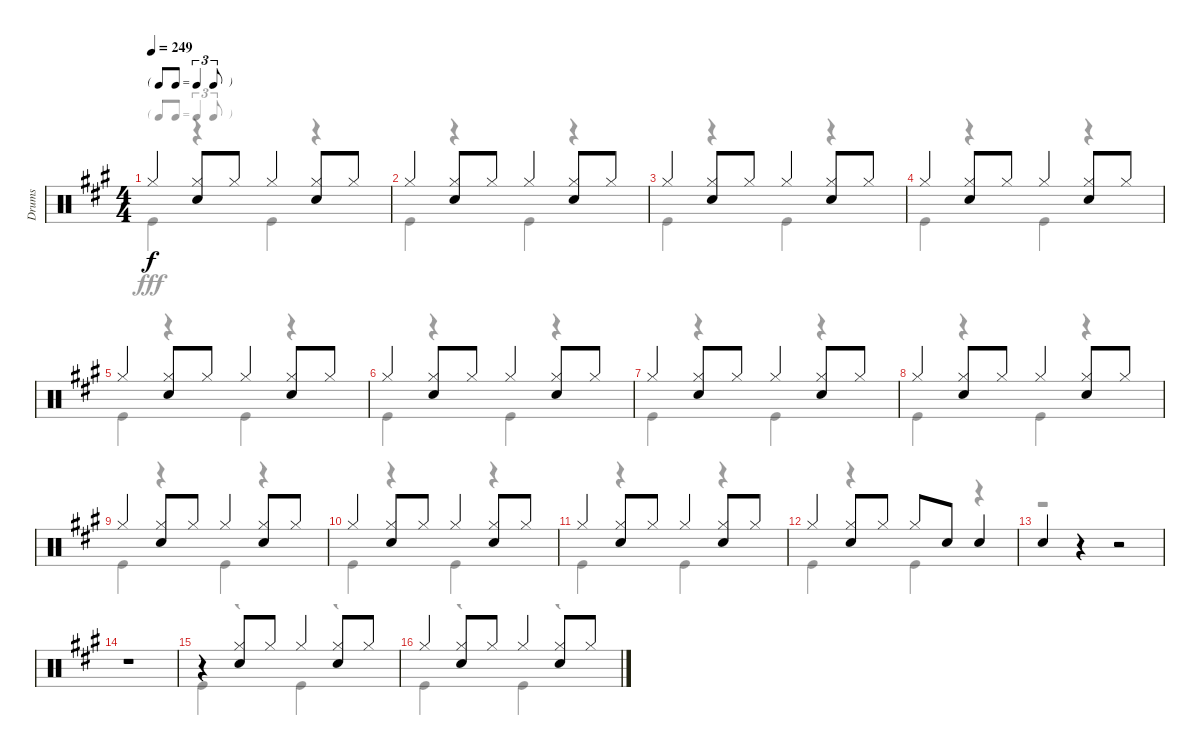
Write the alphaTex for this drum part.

\track ("Drums" "Drums") {instrument percussion}
\staff {score}
\articulation defaults
\voice
\ts (4 4)
\tf triplet8th
\tempo 249
\clef neutral
\ks a "Hi-Hat (closed)".4{dy f}
("Hi-Hat (closed)" "Snare (hit) 2").8 "Hi-Hat (closed)".8 "Hi-Hat (closed)".4 ("Hi-Hat (closed)" "Snare (hit) 2").8 "Hi-Hat (closed)".8 |
"Hi-Hat (closed)".4 ("Hi-Hat (closed)" "Snare (hit) 2").8 "Hi-Hat (closed)".8 "Hi-Hat (closed)".4 ("Hi-Hat (closed)" "Snare (hit) 2").8 "Hi-Hat (closed)".8 |
"Hi-Hat (closed)".4 ("Hi-Hat (closed)" "Snare (hit) 2").8 "Hi-Hat (closed)".8 "Hi-Hat (closed)".4 ("Hi-Hat (closed)" "Snare (hit) 2").8 "Hi-Hat (closed)".8 |
"Hi-Hat (closed)".4 ("Hi-Hat (closed)" "Snare (hit) 2").8 "Hi-Hat (closed)".8 "Hi-Hat (closed)".4 ("Hi-Hat (closed)" "Snare (hit) 2").8 "Hi-Hat (closed)".8 |
"Hi-Hat (closed)".4 ("Hi-Hat (closed)" "Snare (hit) 2").8 "Hi-Hat (closed)".8 "Hi-Hat (closed)".4 ("Hi-Hat (closed)" "Snare (hit) 2").8 "Hi-Hat (closed)".8 |
"Hi-Hat (closed)".4 ("Hi-Hat (closed)" "Snare (hit) 2").8 "Hi-Hat (closed)".8 "Hi-Hat (closed)".4 ("Hi-Hat (closed)" "Snare (hit) 2").8 "Hi-Hat (closed)".8 |
"Hi-Hat (closed)".4 ("Hi-Hat (closed)" "Snare (hit) 2").8 "Hi-Hat (closed)".8 "Hi-Hat (closed)".4 ("Hi-Hat (closed)" "Snare (hit) 2").8 "Hi-Hat (closed)".8 |
"Hi-Hat (closed)".4 ("Hi-Hat (closed)" "Snare (hit) 2").8 "Hi-Hat (closed)".8 "Hi-Hat (closed)".4 ("Hi-Hat (closed)" "Snare (hit) 2").8 "Hi-Hat (closed)".8 |
"Hi-Hat (closed)".4 ("Hi-Hat (closed)" "Snare (hit) 2").8 "Hi-Hat (closed)".8 "Hi-Hat (closed)".4 ("Hi-Hat (closed)" "Snare (hit) 2").8 "Hi-Hat (closed)".8 |
"Hi-Hat (closed)".4 ("Hi-Hat (closed)" "Snare (hit) 2").8 "Hi-Hat (closed)".8 "Hi-Hat (closed)".4 ("Hi-Hat (closed)" "Snare (hit) 2").8 "Hi-Hat (closed)".8 |
"Hi-Hat (closed)".4 ("Hi-Hat (closed)" "Snare (hit) 2").8 "Hi-Hat (closed)".8 "Hi-Hat (closed)".4 ("Hi-Hat (closed)" "Snare (hit) 2").8 "Hi-Hat (closed)".8 |
"Hi-Hat (closed)".4 ("Hi-Hat (closed)" "Snare (hit) 2").8 "Hi-Hat (closed)".8 "Hi-Hat (closed)".8 "Snare (hit) 2".8 "Snare (hit) 2".4 |
"Snare (hit) 2".4 r.4 r.2 |
r.1 |
r.4 ("Hi-Hat (closed)" "Snare (hit) 2").8 "Hi-Hat (closed)".8 "Hi-Hat (closed)".4 ("Hi-Hat (closed)" "Snare (hit) 2").8 "Hi-Hat (closed)".8 |
"Hi-Hat (closed)".4 ("Hi-Hat (closed)" "Snare (hit) 2").8 "Hi-Hat (closed)".8 "Hi-Hat (closed)".4 ("Hi-Hat (closed)" "Snare (hit) 2").8 "Hi-Hat (closed)".8
\voice
\clef neutral
\ottava regular
\simile none
\ks a "Kick (hit)".4{dy fff}
r.4 "Kick (hit)".4 r.4 |
"Kick (hit)".4 r.4 "Kick (hit)".4 r.4 |
"Kick (hit)".4 r.4 "Kick (hit)".4 r.4 |
"Kick (hit)".4 r.4 "Kick (hit)".4 r.4 |
"Kick (hit)".4 r.4 "Kick (hit)".4 r.4 |
"Kick (hit)".4 r.4 "Kick (hit)".4 r.4 |
"Kick (hit)".4 r.4 "Kick (hit)".4 r.4 |
"Kick (hit)".4 r.4 "Kick (hit)".4 r.4 |
"Kick (hit)".4 r.4 "Kick (hit)".4 r.4 |
"Kick (hit)".4 r.4 "Kick (hit)".4 r.4 |
"Kick (hit)".4 r.4 "Kick (hit)".4 r.4 |
"Kick (hit)".4 r.4 "Kick (hit)".4 r.4 |
r.1 |
r.1 |
"Kick (hit)".4 r.4 "Kick (hit)".4 r.4 |
"Kick (hit)".4 r.4 "Kick (hit)".4 r.4
